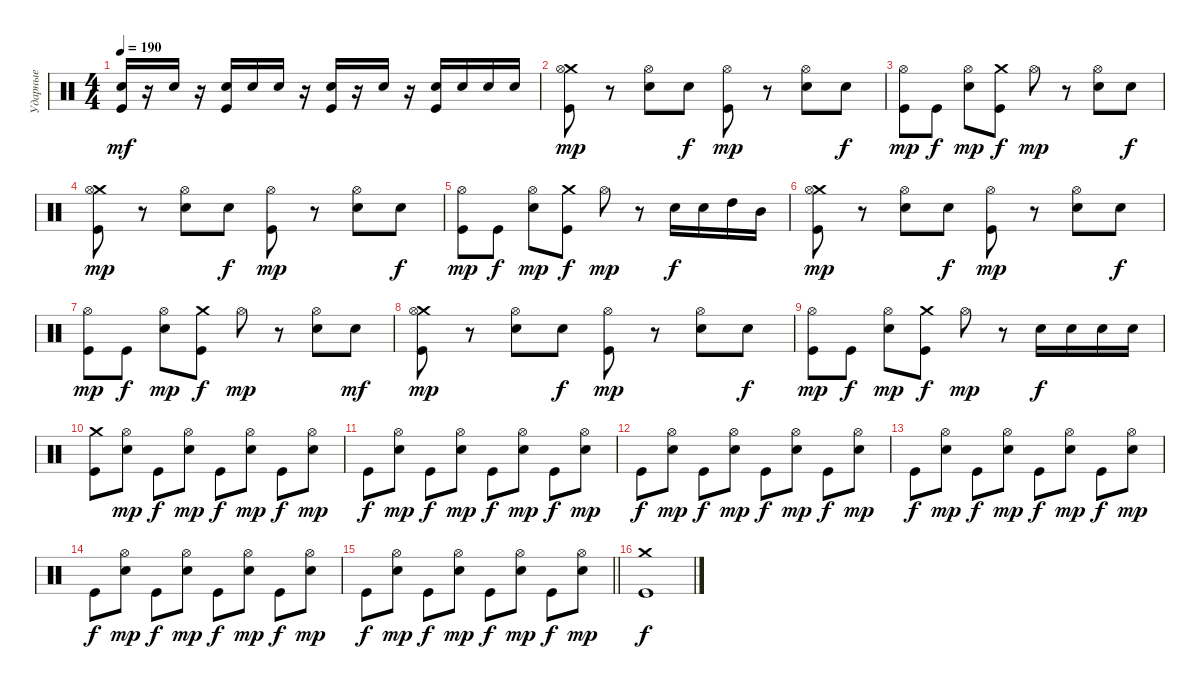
\track ("Ударные" "Ударные") {instrument percussion}
\staff {score}
\articulation defaults
\ts (4 4)
\tempo 190
\clef neutral
\ks c
("Electric Snare (hit)" "Kick (hit)").16{dy mf} r.16 "Electric Snare (hit)".16 r.16 ("Electric Snare (hit)" "Kick (hit)").16 "Electric Snare (hit)".16 "Electric Snare (hit)".16 r.16 ("Electric Snare (hit)" "Kick (hit)").16 r.16 "Electric Snare (hit)".16 r.16 ("Electric Snare (hit)" "Kick (hit)").16 "Electric Snare (hit)".16 "Electric Snare (hit)".16 "Electric Snare (hit)".16 |
("Crash medium (hit)" "Kick (hit)" "Hi-Hat (open)").8{dy mp} r.8 ("Electric Snare (hit)" "Hi-Hat (open)").8 "Electric Snare (hit)".8{dy f} ("Kick (hit)" "Hi-Hat (open)").8{dy mp} r.8 ("Electric Snare (hit)" "Hi-Hat (open)").8 "Electric Snare (hit)".8{dy f} |
("Kick (hit)" "Hi-Hat (open)").8{dy mp} "Kick (hit)".8{dy f} ("Electric Snare (hit)" "Hi-Hat (open)").8{dy mp} ("Crash medium (hit)" "Kick (hit)").8{dy f} "Hi-Hat (open)".8{dy mp} r.8 ("Electric Snare (hit)" "Hi-Hat (open)").8 "Electric Snare (hit)".8{dy f} |
("Crash medium (hit)" "Kick (hit)" "Hi-Hat (open)").8{dy mp} r.8 ("Electric Snare (hit)" "Hi-Hat (open)").8 "Electric Snare (hit)".8{dy f} ("Kick (hit)" "Hi-Hat (open)").8{dy mp} r.8 ("Electric Snare (hit)" "Hi-Hat (open)").8 "Electric Snare (hit)".8{dy f} |
("Kick (hit)" "Hi-Hat (open)").8{dy mp} "Kick (hit)".8{dy f} ("Electric Snare (hit)" "Hi-Hat (open)").8{dy mp} ("Crash medium (hit)" "Kick (hit)").8{dy f} "Hi-Hat (open)".8{dy mp} r.8 "Electric Snare (hit)".16{dy f} "Electric Snare (hit)".16 "High Tom (hit)".16 "Mid Tom (hit)".16 |
("Crash medium (hit)" "Kick (hit)" "Hi-Hat (open)").8{dy mp} r.8 ("Electric Snare (hit)" "Hi-Hat (open)").8 "Electric Snare (hit)".8{dy f} ("Kick (hit)" "Hi-Hat (open)").8{dy mp} r.8 ("Electric Snare (hit)" "Hi-Hat (open)").8 "Electric Snare (hit)".8{dy f} |
("Kick (hit)" "Hi-Hat (open)").8{dy mp} "Kick (hit)".8{dy f} ("Electric Snare (hit)" "Hi-Hat (open)").8{dy mp} ("Crash medium (hit)" "Kick (hit)").8{dy f} "Hi-Hat (open)".8{dy mp} r.8 ("Electric Snare (hit)" "Hi-Hat (open)").8 "Electric Snare (hit)".8{dy mf} |
("Crash medium (hit)" "Kick (hit)" "Hi-Hat (open)").8{dy mp} r.8 ("Electric Snare (hit)" "Hi-Hat (open)").8 "Electric Snare (hit)".8{dy f} ("Kick (hit)" "Hi-Hat (open)").8{dy mp} r.8 ("Electric Snare (hit)" "Hi-Hat (open)").8 "Electric Snare (hit)".8{dy f} |
("Kick (hit)" "Hi-Hat (open)").8{dy mp} "Kick (hit)".8{dy f} ("Electric Snare (hit)" "Hi-Hat (open)").8{dy mp} ("Crash medium (hit)" "Kick (hit)").8{dy f} "Hi-Hat (open)".8{dy mp} r.8 "Electric Snare (hit)".16{dy f} "Electric Snare (hit)".16 "Electric Snare (hit)".16 "Electric Snare (hit)".16 |
("Kick (hit)" "Crash medium (hit)").8 ("Electric Snare (hit)" "Hi-Hat (open)").8{dy mp} "Kick (hit)".8{dy f} ("Electric Snare (hit)" "Hi-Hat (open)").8{dy mp} "Kick (hit)".8{dy f} ("Electric Snare (hit)" "Hi-Hat (open)").8{dy mp} "Kick (hit)".8{dy f} ("Electric Snare (hit)" "Hi-Hat (open)").8{dy mp} |
"Kick (hit)".8{dy f} ("Electric Snare (hit)" "Hi-Hat (open)").8{dy mp} "Kick (hit)".8{dy f} ("Electric Snare (hit)" "Hi-Hat (open)").8{dy mp} "Kick (hit)".8{dy f} ("Electric Snare (hit)" "Hi-Hat (open)").8{dy mp} "Kick (hit)".8{dy f} ("Electric Snare (hit)" "Hi-Hat (open)").8{dy mp} |
"Kick (hit)".8{dy f} ("Electric Snare (hit)" "Hi-Hat (open)").8{dy mp} "Kick (hit)".8{dy f} ("Electric Snare (hit)" "Hi-Hat (open)").8{dy mp} "Kick (hit)".8{dy f} ("Electric Snare (hit)" "Hi-Hat (open)").8{dy mp} "Kick (hit)".8{dy f} ("Electric Snare (hit)" "Hi-Hat (open)").8{dy mp} |
"Kick (hit)".8{dy f} ("Electric Snare (hit)" "Hi-Hat (open)").8{dy mp} "Kick (hit)".8{dy f} ("Electric Snare (hit)" "Hi-Hat (open)").8{dy mp} "Kick (hit)".8{dy f} ("Electric Snare (hit)" "Hi-Hat (open)").8{dy mp} "Kick (hit)".8{dy f} ("Electric Snare (hit)" "Hi-Hat (open)").8{dy mp} |
"Kick (hit)".8{dy f} ("Electric Snare (hit)" "Hi-Hat (open)").8{dy mp} "Kick (hit)".8{dy f} ("Electric Snare (hit)" "Hi-Hat (open)").8{dy mp} "Kick (hit)".8{dy f} ("Electric Snare (hit)" "Hi-Hat (open)").8{dy mp} "Kick (hit)".8{dy f} ("Electric Snare (hit)" "Hi-Hat (open)").8{dy mp} |
\barLineRight lightlight "Kick (hit)".8{dy f}
("Electric Snare (hit)" "Hi-Hat (open)").8{dy mp} "Kick (hit)".8{dy f} ("Electric Snare (hit)" "Hi-Hat (open)").8{dy mp} "Kick (hit)".8{dy f} ("Electric Snare (hit)" "Hi-Hat (open)").8{dy mp} "Kick (hit)".8{dy f} ("Electric Snare (hit)" "Hi-Hat (open)").8{dy mp} |
("Crash medium (hit)" "Kick (hit)").1{dy f}
